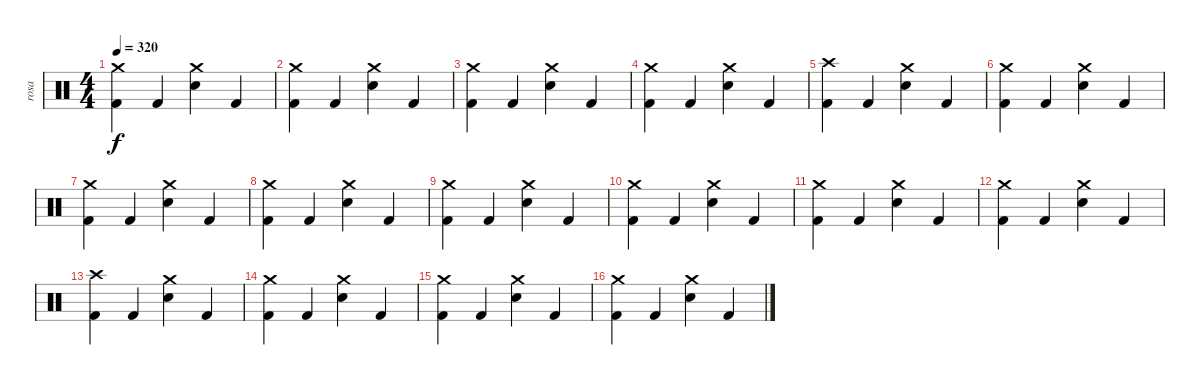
\track ("rosa" "rosa") {instrument percussion}
\staff {score}
\articulation defaults
\ts (4 4)
\tempo 320
\clef neutral
\ks c
("Crash medium (hit)" "Kick (hit) 2").4{dy f} "Kick (hit) 2".4 ("Crash medium (hit)" "Electric Snare (hit)").4 "Kick (hit) 2".4 |
("Crash medium (hit)" "Kick (hit) 2").4 "Kick (hit) 2".4 ("Crash medium (hit)" "Electric Snare (hit)").4 "Kick (hit) 2".4 |
("Crash medium (hit)" "Kick (hit) 2").4 "Kick (hit) 2".4 ("Crash medium (hit)" "Electric Snare (hit)").4 "Kick (hit) 2".4 |
("Crash medium (hit)" "Kick (hit) 2").4 "Kick (hit) 2".4 ("Crash medium (hit)" "Electric Snare (hit)").4 "Kick (hit) 2".4 |
("Crash high (hit)" "Kick (hit) 2").4 "Kick (hit) 2".4 ("Crash medium (hit)" "Electric Snare (hit)").4 "Kick (hit) 2".4 |
("Crash medium (hit)" "Kick (hit) 2").4 "Kick (hit) 2".4 ("Crash medium (hit)" "Electric Snare (hit)").4 "Kick (hit) 2".4 |
("Crash medium (hit)" "Kick (hit) 2").4 "Kick (hit) 2".4 ("Crash medium (hit)" "Electric Snare (hit)").4 "Kick (hit) 2".4 |
("Crash medium (hit)" "Kick (hit) 2").4 "Kick (hit) 2".4 ("Crash medium (hit)" "Electric Snare (hit)").4 "Kick (hit) 2".4 |
("Crash medium (hit)" "Kick (hit) 2").4 "Kick (hit) 2".4 ("Crash medium (hit)" "Electric Snare (hit)").4 "Kick (hit) 2".4 |
("Crash medium (hit)" "Kick (hit) 2").4 "Kick (hit) 2".4 ("Crash medium (hit)" "Electric Snare (hit)").4 "Kick (hit) 2".4 |
("Crash medium (hit)" "Kick (hit) 2").4 "Kick (hit) 2".4 ("Crash medium (hit)" "Electric Snare (hit)").4 "Kick (hit) 2".4 |
("Crash medium (hit)" "Kick (hit) 2").4 "Kick (hit) 2".4 ("Crash medium (hit)" "Electric Snare (hit)").4 "Kick (hit) 2".4 |
("Crash high (hit)" "Kick (hit) 2").4 "Kick (hit) 2".4 ("Crash medium (hit)" "Electric Snare (hit)").4 "Kick (hit) 2".4 |
("Crash medium (hit)" "Kick (hit) 2").4 "Kick (hit) 2".4 ("Crash medium (hit)" "Electric Snare (hit)").4 "Kick (hit) 2".4 |
("Crash medium (hit)" "Kick (hit) 2").4 "Kick (hit) 2".4 ("Crash medium (hit)" "Electric Snare (hit)").4 "Kick (hit) 2".4 |
("Crash medium (hit)" "Kick (hit) 2").4 "Kick (hit) 2".4 ("Crash medium (hit)" "Electric Snare (hit)").4 "Kick (hit) 2".4
